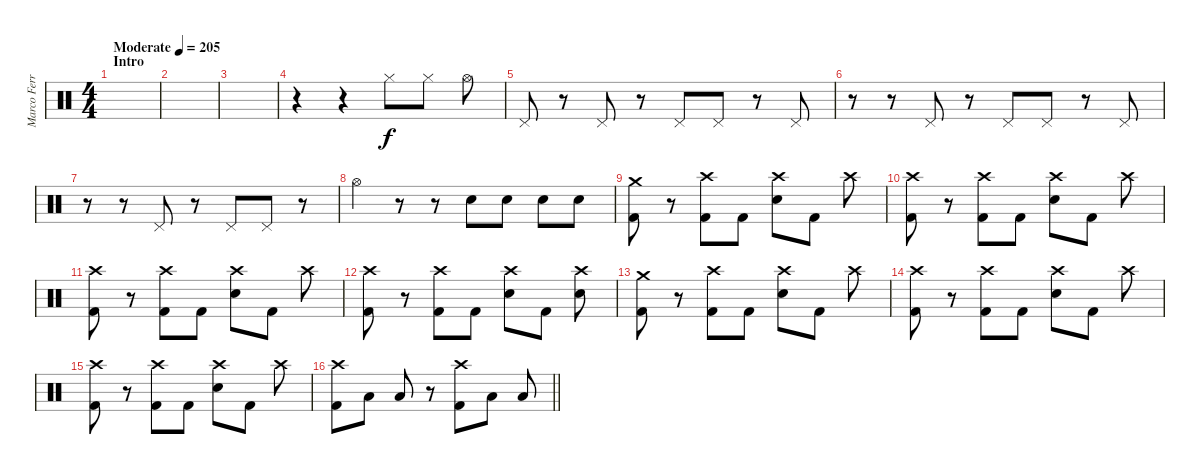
\track ("Marco Ferro" "Marco Ferr") {instrument percussion}
\staff {score}
\articulation defaults
\ts (4 4)
\section ("" "Intro")
\tempo (205 "Moderate")
\clef neutral
\ks c
|
|
|
r.4 r.4 "Hi-Hat (closed)".8 "Hi-Hat (closed)".8 "Hi-Hat (open)".8 |
"Pedal Hi-Hat (hit)".8 r.8 "Pedal Hi-Hat (hit)".8 r.8 "Pedal Hi-Hat (hit)".8 "Pedal Hi-Hat (hit)".8 r.8 "Pedal Hi-Hat (hit)".8 |
r.8 r.8 "Pedal Hi-Hat (hit)".8 r.8 "Pedal Hi-Hat (hit)".8 "Pedal Hi-Hat (hit)".8 r.8 "Pedal Hi-Hat (hit)".8 |
r.8 r.8 "Pedal Hi-Hat (hit)".8 r.8 "Pedal Hi-Hat (hit)".8 "Pedal Hi-Hat (hit)".8 r.8 |
"Hi-Hat (open)".4 r.8 r.8 "Electric Snare (hit)".8 "Electric Snare (hit)".8 "Electric Snare (hit)".8 "Electric Snare (hit)".8 |
("Crash medium (hit)" "Kick (hit) 2").8 r.8 ("Crash high (hit)" "Kick (hit) 2").8 "Kick (hit) 2".8 ("Crash high (hit)" "Electric Snare (hit)").8 "Kick (hit) 2".8 "Crash high (hit)".8 |
("Crash high (hit)" "Kick (hit) 2").8 r.8 ("Crash high (hit)" "Kick (hit) 2").8 "Kick (hit) 2".8 ("Crash high (hit)" "Electric Snare (hit)").8 "Kick (hit) 2".8 "Crash high (hit)".8 |
("Crash high (hit)" "Kick (hit) 2").8 r.8 ("Crash high (hit)" "Kick (hit) 2").8 "Kick (hit) 2".8 ("Crash high (hit)" "Electric Snare (hit)").8 "Kick (hit) 2".8 "Crash high (hit)".8 |
("Crash high (hit)" "Kick (hit) 2").8 r.8 ("Crash high (hit)" "Kick (hit) 2").8 "Kick (hit) 2".8 ("Crash high (hit)" "Electric Snare (hit)").8 "Kick (hit) 2".8 ("Crash high (hit)" "Electric Snare (hit)").8 |
("Crash medium (hit)" "Kick (hit) 2").8 r.8 ("Crash high (hit)" "Kick (hit) 2").8 "Kick (hit) 2".8 ("Crash high (hit)" "Electric Snare (hit)").8 "Kick (hit) 2".8 "Crash high (hit)".8 |
("Crash high (hit)" "Kick (hit) 2").8 r.8 ("Crash high (hit)" "Kick (hit) 2").8 "Kick (hit) 2".8 ("Crash high (hit)" "Electric Snare (hit)").8 "Kick (hit) 2".8 "Crash high (hit)".8 |
("Crash high (hit)" "Kick (hit) 2").8 r.8 ("Crash high (hit)" "Kick (hit) 2").8 "Kick (hit) 2".8 ("Crash high (hit)" "Electric Snare (hit)").8 "Kick (hit) 2".8 "Crash high (hit)".8 |
\barLineRight lightlight
("Crash high (hit)" "Kick (hit) 2").8 "Low Tom (hit)".8 "Low Tom (hit)".8 r.8 ("Crash high (hit)" "Kick (hit) 2").8 "Low Tom (hit)".8 "Low Tom (hit)".8
